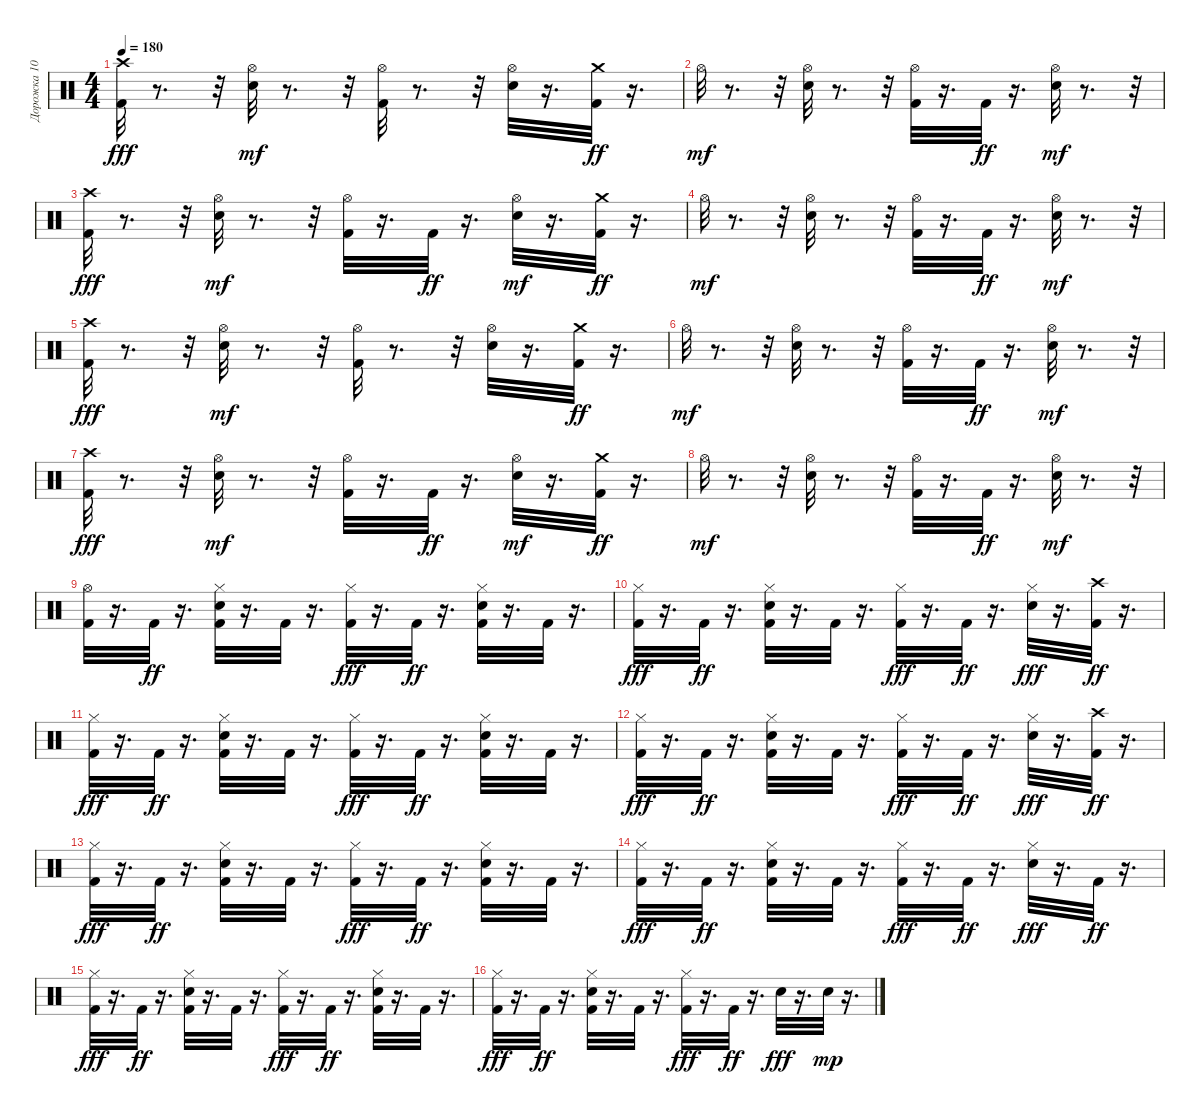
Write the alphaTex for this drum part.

\track ("Дорожка 10" "Дорожка 10") {instrument percussion}
\staff {score}
\articulation defaults
\ts (4 4)
\tempo 180
\clef neutral
\ks c
("Kick (hit) 2" "Crash high (hit)").32{dy fff} r.8{d} r.32 ("Snare (hit) 2" "Hi-Hat (open)").32{dy mf} r.8{d} r.32 ("Kick (hit) 2" "Hi-Hat (open)").32 r.8{d} r.32 ("Snare (hit) 2" "Hi-Hat (open)").32 r.16{d} ("Crash medium (hit)" "Kick (hit) 2").32{dy ff} r.16{d} |
"Hi-Hat (open)".32{dy mf} r.8{d} r.32 ("Snare (hit) 2" "Hi-Hat (open)").32 r.8{d} r.32 ("Kick (hit) 2" "Hi-Hat (open)").32 r.16{d} "Kick (hit) 2".32{dy ff} r.16{d} ("Snare (hit) 2" "Hi-Hat (open)").32{dy mf} r.8{d} r.32 |
("Kick (hit) 2" "Crash high (hit)").32{dy fff} r.8{d} r.32 ("Snare (hit) 2" "Hi-Hat (open)").32{dy mf} r.8{d} r.32 ("Kick (hit) 2" "Hi-Hat (open)").32 r.16{d} "Kick (hit) 2".32{dy ff} r.16{d} ("Snare (hit) 2" "Hi-Hat (open)").32{dy mf} r.16{d} ("Crash medium (hit)" "Kick (hit) 2").32{dy ff} r.16{d} |
"Hi-Hat (open)".32{dy mf} r.8{d} r.32 ("Snare (hit) 2" "Hi-Hat (open)").32 r.8{d} r.32 ("Kick (hit) 2" "Hi-Hat (open)").32 r.16{d} "Kick (hit) 2".32{dy ff} r.16{d} ("Snare (hit) 2" "Hi-Hat (open)").32{dy mf} r.8{d} r.32 |
("Kick (hit) 2" "Crash high (hit)").32{dy fff} r.8{d} r.32 ("Snare (hit) 2" "Hi-Hat (open)").32{dy mf} r.8{d} r.32 ("Kick (hit) 2" "Hi-Hat (open)").32 r.8{d} r.32 ("Snare (hit) 2" "Hi-Hat (open)").32 r.16{d} ("Crash medium (hit)" "Kick (hit) 2").32{dy ff} r.16{d} |
"Hi-Hat (open)".32{dy mf} r.8{d} r.32 ("Snare (hit) 2" "Hi-Hat (open)").32 r.8{d} r.32 ("Kick (hit) 2" "Hi-Hat (open)").32 r.16{d} "Kick (hit) 2".32{dy ff} r.16{d} ("Snare (hit) 2" "Hi-Hat (open)").32{dy mf} r.8{d} r.32 |
("Kick (hit) 2" "Crash high (hit)").32{dy fff} r.8{d} r.32 ("Snare (hit) 2" "Hi-Hat (open)").32{dy mf} r.8{d} r.32 ("Kick (hit) 2" "Hi-Hat (open)").32 r.16{d} "Kick (hit) 2".32{dy ff} r.16{d} ("Snare (hit) 2" "Hi-Hat (open)").32{dy mf} r.16{d} ("Crash medium (hit)" "Kick (hit) 2").32{dy ff} r.16{d} |
"Hi-Hat (open)".32{dy mf} r.8{d} r.32 ("Snare (hit) 2" "Hi-Hat (open)").32 r.8{d} r.32 ("Kick (hit) 2" "Hi-Hat (open)").32 r.16{d} "Kick (hit) 2".32{dy ff} r.16{d} ("Snare (hit) 2" "Hi-Hat (open)").32{dy mf} r.8{d} r.32 |
("Kick (hit) 2" "Hi-Hat (open)").32 r.16{d} "Kick (hit) 2".32{dy ff} r.16{d} ("Kick (hit) 2" "Snare (hit) 2" "Hi-Hat (closed)").32 r.16{d} "Kick (hit) 2".32 r.16{d} ("Kick (hit) 2" "Hi-Hat (closed)").32{dy fff} r.16{d} "Kick (hit) 2".32{dy ff} r.16{d} ("Kick (hit) 2" "Snare (hit) 2" "Hi-Hat (closed)").32 r.16{d} "Kick (hit) 2".32 r.16{d} |
("Hi-Hat (closed)" "Kick (hit) 2").32{dy fff} r.16{d} "Kick (hit) 2".32{dy ff} r.16{d} ("Kick (hit) 2" "Snare (hit) 2" "Hi-Hat (closed)").32 r.16{d} "Kick (hit) 2".32 r.16{d} ("Kick (hit) 2" "Hi-Hat (closed)").32{dy fff} r.16{d} "Kick (hit) 2".32{dy ff} r.16{d} ("Snare (hit) 2" "Hi-Hat (closed)").32{dy fff} r.16{d} ("Kick (hit) 2" "Crash high (hit)").32{dy ff} r.16{d} |
("Kick (hit) 2" "Hi-Hat (closed)").32{dy fff} r.16{d} "Kick (hit) 2".32{dy ff} r.16{d} ("Kick (hit) 2" "Snare (hit) 2" "Hi-Hat (closed)").32 r.16{d} "Kick (hit) 2".32 r.16{d} ("Kick (hit) 2" "Hi-Hat (closed)").32{dy fff} r.16{d} "Kick (hit) 2".32{dy ff} r.16{d} ("Kick (hit) 2" "Snare (hit) 2" "Hi-Hat (closed)").32 r.16{d} "Kick (hit) 2".32 r.16{d} |
("Hi-Hat (closed)" "Kick (hit) 2").32{dy fff} r.16{d} "Kick (hit) 2".32{dy ff} r.16{d} ("Kick (hit) 2" "Snare (hit) 2" "Hi-Hat (closed)").32 r.16{d} "Kick (hit) 2".32 r.16{d} ("Kick (hit) 2" "Hi-Hat (closed)").32{dy fff} r.16{d} "Kick (hit) 2".32{dy ff} r.16{d} ("Snare (hit) 2" "Hi-Hat (closed)").32{dy fff} r.16{d} ("Kick (hit) 2" "Crash high (hit)").32{dy ff} r.16{d} |
("Kick (hit) 2" "Hi-Hat (closed)").32{dy fff} r.16{d} "Kick (hit) 2".32{dy ff} r.16{d} ("Kick (hit) 2" "Snare (hit) 2" "Hi-Hat (closed)").32 r.16{d} "Kick (hit) 2".32 r.16{d} ("Kick (hit) 2" "Hi-Hat (closed)").32{dy fff} r.16{d} "Kick (hit) 2".32{dy ff} r.16{d} ("Kick (hit) 2" "Snare (hit) 2" "Hi-Hat (closed)").32 r.16{d} "Kick (hit) 2".32 r.16{d} |
("Hi-Hat (closed)" "Kick (hit) 2").32{dy fff} r.16{d} "Kick (hit) 2".32{dy ff} r.16{d} ("Kick (hit) 2" "Snare (hit) 2" "Hi-Hat (closed)").32 r.16{d} "Kick (hit) 2".32 r.16{d} ("Kick (hit) 2" "Hi-Hat (closed)").32{dy fff} r.16{d} "Kick (hit) 2".32{dy ff} r.16{d} ("Snare (hit) 2" "Hi-Hat (closed)").32{dy fff} r.16{d} "Kick (hit) 2".32{dy ff} r.16{d} |
("Kick (hit) 2" "Hi-Hat (closed)").32{dy fff} r.16{d} "Kick (hit) 2".32{dy ff} r.16{d} ("Kick (hit) 2" "Snare (hit) 2" "Hi-Hat (closed)").32 r.16{d} "Kick (hit) 2".32 r.16{d} ("Kick (hit) 2" "Hi-Hat (closed)").32{dy fff} r.16{d} "Kick (hit) 2".32{dy ff} r.16{d} ("Kick (hit) 2" "Snare (hit) 2" "Hi-Hat (closed)").32 r.16{d} "Kick (hit) 2".32 r.16{d} |
("Hi-Hat (closed)" "Kick (hit) 2").32{dy fff} r.16{d} "Kick (hit) 2".32{dy ff} r.16{d} ("Kick (hit) 2" "Snare (hit) 2" "Hi-Hat (closed)").32 r.16{d} "Kick (hit) 2".32 r.16{d} ("Kick (hit) 2" "Hi-Hat (closed)").32{dy fff} r.16{d} "Kick (hit) 2".32{dy ff} r.16{d} "Snare (hit) 2".32{dy fff} r.16{d} "Snare (hit) 2".32{dy mp} r.16{d}
